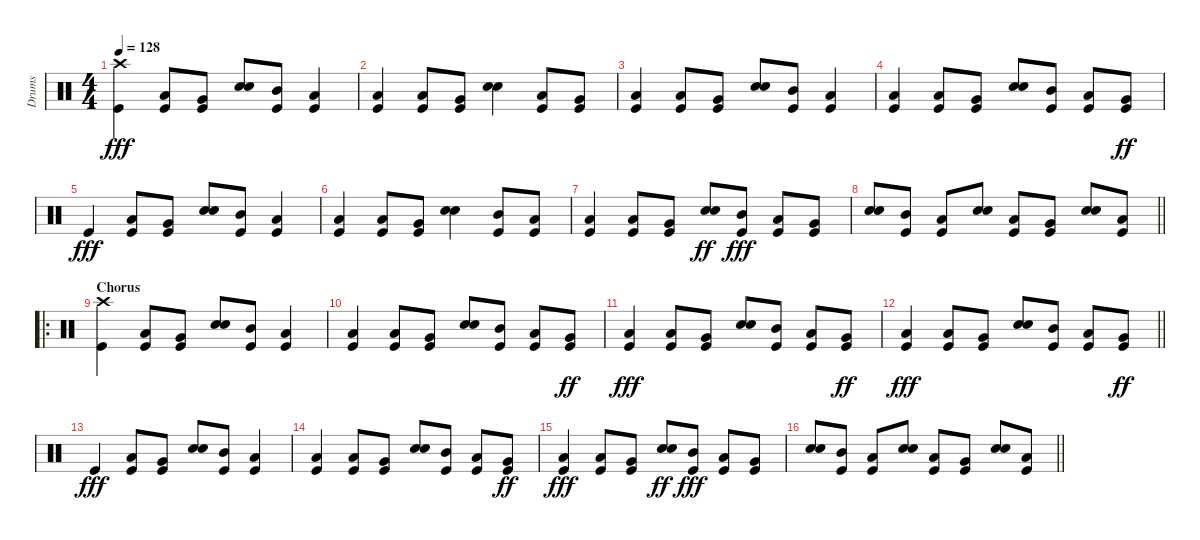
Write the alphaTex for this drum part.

\track ("Drums" "Drums") {instrument percussion}
\staff {score}
\articulation defaults
\ts (4 4)
\tempo 128
\clef neutral
\ks c
("Crash high (hit)" "Kick (hit)").4{dy fff} ("Low Tom (hit)" "Kick (hit)").8 ("Very Low Tom (hit)" "Kick (hit)").8 ("Snare (hit) 2" "Electric Snare (hit)").8 ("Mid Tom (hit)" "Kick (hit)").8 ("Low Tom (hit)" "Kick (hit)").4 |
("Low Tom (hit)" "Kick (hit)").4 ("Low Tom (hit)" "Kick (hit)").8 ("Very Low Tom (hit)" "Kick (hit)").8 ("Snare (hit) 2" "Electric Snare (hit)").4 ("Low Tom (hit)" "Kick (hit)").8 ("Very Low Tom (hit)" "Kick (hit)").8 |
("Low Tom (hit)" "Kick (hit)").4 ("Low Tom (hit)" "Kick (hit)").8 ("Very Low Tom (hit)" "Kick (hit)").8 ("Snare (hit) 2" "Electric Snare (hit)").8 ("Mid Tom (hit)" "Kick (hit)").8 ("Low Tom (hit)" "Kick (hit)").4 |
("Low Tom (hit)" "Kick (hit)").4 ("Low Tom (hit)" "Kick (hit)").8 ("Very Low Tom (hit)" "Kick (hit)").8 ("Snare (hit) 2" "Electric Snare (hit)").8 ("Mid Tom (hit)" "Kick (hit)").8 ("Low Tom (hit)" "Kick (hit)").8 ("Very Low Tom (hit)" "Kick (hit)").8{dy ff} |
"Kick (hit)".4{dy fff} ("Low Tom (hit)" "Kick (hit)").8 ("Very Low Tom (hit)" "Kick (hit)").8 ("Snare (hit) 2" "Electric Snare (hit)").8 ("Mid Tom (hit)" "Kick (hit)").8 ("Low Tom (hit)" "Kick (hit)").4 |
("Low Tom (hit)" "Kick (hit)").4 ("Low Tom (hit)" "Kick (hit)").8 ("Very Low Tom (hit)" "Kick (hit)").8 ("Snare (hit) 2" "Electric Snare (hit)").4 ("Mid Tom (hit)" "Kick (hit)").8 ("Low Tom (hit)" "Kick (hit)").8 |
("Low Tom (hit)" "Kick (hit)").4 ("Low Tom (hit)" "Kick (hit)").8 ("Very Low Tom (hit)" "Kick (hit)").8 ("Snare (hit) 2" "Electric Snare (hit)").8{dy ff} ("Mid Tom (hit)" "Kick (hit)").8{dy fff} ("Low Tom (hit)" "Kick (hit)").8 ("Very Low Tom (hit)" "Kick (hit)").8 |
\barLineRight lightlight
("Snare (hit) 2" "Electric Snare (hit)").8 ("Mid Tom (hit)" "Kick (hit)").8 ("Low Tom (hit)" "Kick (hit)").8 ("Snare (hit) 2" "Electric Snare (hit)").8 ("Low Tom (hit)" "Kick (hit)").8 ("Very Low Tom (hit)" "Kick (hit)").8 ("Snare (hit) 2" "Electric Snare (hit)").8 ("Low Tom (hit)" "Kick (hit)").8 |
\ro
\section ("" "Chorus")
("Crash high (hit)" "Kick (hit)").4 ("Low Tom (hit)" "Kick (hit)").8 ("Very Low Tom (hit)" "Kick (hit)").8 ("Snare (hit) 2" "Electric Snare (hit)").8 ("Mid Tom (hit)" "Kick (hit)").8 ("Low Tom (hit)" "Kick (hit)").4 |
("Low Tom (hit)" "Kick (hit)").4 ("Low Tom (hit)" "Kick (hit)").8 ("Very Low Tom (hit)" "Kick (hit)").8 ("Snare (hit) 2" "Electric Snare (hit)").8 ("Mid Tom (hit)" "Kick (hit)").8 ("Low Tom (hit)" "Kick (hit)").8 ("Very Low Tom (hit)" "Kick (hit)").8{dy ff} |
("Low Tom (hit)" "Kick (hit)").4{dy fff} ("Low Tom (hit)" "Kick (hit)").8 ("Very Low Tom (hit)" "Kick (hit)").8 ("Snare (hit) 2" "Electric Snare (hit)").8 ("Mid Tom (hit)" "Kick (hit)").8 ("Low Tom (hit)" "Kick (hit)").8 ("Very Low Tom (hit)" "Kick (hit)").8{dy ff} |
\barLineRight lightlight
("Low Tom (hit)" "Kick (hit)").4{dy fff} ("Low Tom (hit)" "Kick (hit)").8 ("Very Low Tom (hit)" "Kick (hit)").8 ("Snare (hit) 2" "Electric Snare (hit)").8 ("Mid Tom (hit)" "Kick (hit)").8 ("Low Tom (hit)" "Kick (hit)").8 ("Very Low Tom (hit)" "Kick (hit)").8{dy ff} |
"Kick (hit)".4{dy fff} ("Low Tom (hit)" "Kick (hit)").8 ("Very Low Tom (hit)" "Kick (hit)").8 ("Snare (hit) 2" "Electric Snare (hit)").8 ("Mid Tom (hit)" "Kick (hit)").8 ("Low Tom (hit)" "Kick (hit)").4 |
("Low Tom (hit)" "Kick (hit)").4 ("Low Tom (hit)" "Kick (hit)").8 ("Very Low Tom (hit)" "Kick (hit)").8 ("Snare (hit) 2" "Electric Snare (hit)").8 ("Mid Tom (hit)" "Kick (hit)").8 ("Low Tom (hit)" "Kick (hit)").8 ("Very Low Tom (hit)" "Kick (hit)").8{dy ff} |
("Low Tom (hit)" "Kick (hit)").4{dy fff} ("Low Tom (hit)" "Kick (hit)").8 ("Very Low Tom (hit)" "Kick (hit)").8 ("Snare (hit) 2" "Electric Snare (hit)").8{dy ff} ("Mid Tom (hit)" "Kick (hit)").8{dy fff} ("Low Tom (hit)" "Kick (hit)").8 ("Very Low Tom (hit)" "Kick (hit)").8 |
\barLineRight lightlight
("Snare (hit) 2" "Electric Snare (hit)").8 ("Mid Tom (hit)" "Kick (hit)").8 ("Low Tom (hit)" "Kick (hit)").8 ("Snare (hit) 2" "Electric Snare (hit)").8 ("Low Tom (hit)" "Kick (hit)").8 ("Very Low Tom (hit)" "Kick (hit)").8 ("Snare (hit) 2" "Electric Snare (hit)").8 ("Low Tom (hit)" "Kick (hit)").8
